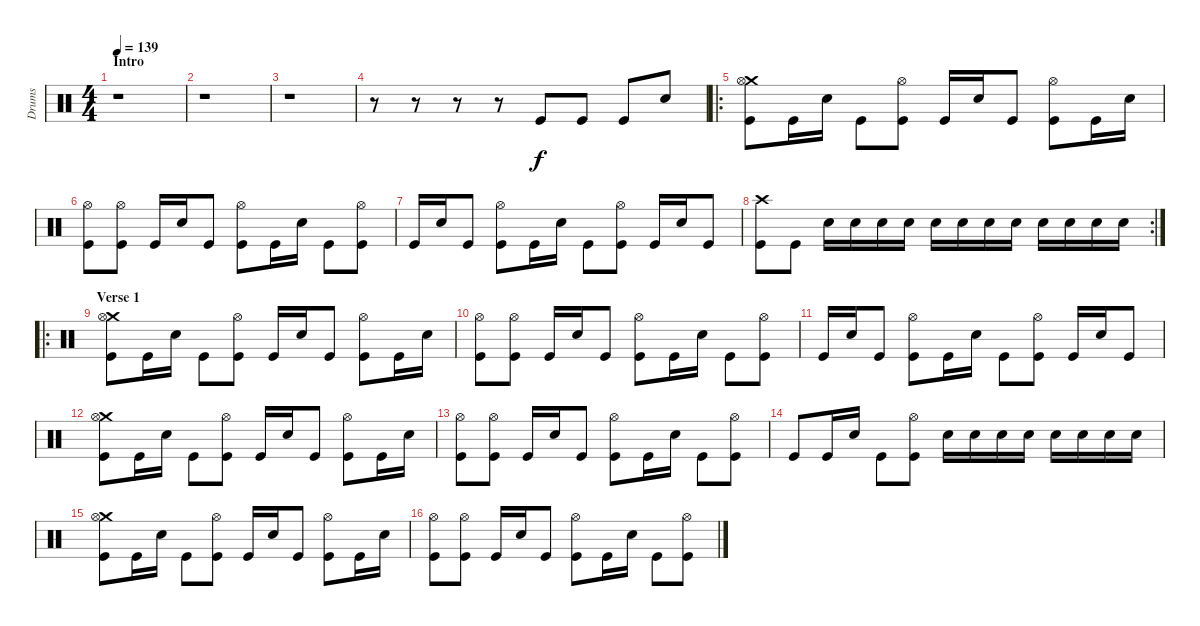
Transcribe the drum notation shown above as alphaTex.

\track ("Drums" "Drums") {instrument percussion}
\staff {score}
\articulation defaults
\ts (4 4)
\section ("" "Intro")
\tempo 139
\clef neutral
\ks c
r.1{dy f} |
r.1 |
r.1 |
r.8 r.8 r.8 r.8 "Kick (hit)".8 "Kick (hit)".8 "Kick (hit)".8 "Electric Snare (hit)".8 |
\ro
("Crash medium (hit)" "Hi-Hat (open)" "Kick (hit)").8 "Kick (hit)".16 "Electric Snare (hit)".16 "Kick (hit)".8 ("Hi-Hat (open)" "Kick (hit)").8 "Kick (hit)".16 "Electric Snare (hit)".16 "Kick (hit)".8 ("Hi-Hat (open)" "Kick (hit)").8 "Kick (hit)".16 "Electric Snare (hit)".16 |
("Hi-Hat (open)" "Kick (hit)").8 ("Hi-Hat (open)" "Kick (hit)").8 "Kick (hit)".16 "Electric Snare (hit)".16 "Kick (hit)".8 ("Hi-Hat (open)" "Kick (hit)").8 "Kick (hit)".16 "Electric Snare (hit)".16 "Kick (hit)".8 ("Hi-Hat (open)" "Kick (hit)").8 |
"Kick (hit)".16 "Electric Snare (hit)".16 "Kick (hit)".8 ("Hi-Hat (open)" "Kick (hit)").8 "Kick (hit)".16 "Electric Snare (hit)".16 "Kick (hit)".8 ("Hi-Hat (open)" "Kick (hit)").8 "Kick (hit)".16 "Electric Snare (hit)".16 "Kick (hit)".8 |
\rc 2
("Crash high (hit)" "Kick (hit)").8 "Kick (hit)".8 "Electric Snare (hit)".16 "Electric Snare (hit)".16 "Electric Snare (hit)".16 "Electric Snare (hit)".16 "Electric Snare (hit)".16 "Electric Snare (hit)".16 "Electric Snare (hit)".16 "Electric Snare (hit)".16 "Electric Snare (hit)".16 "Electric Snare (hit)".16 "Electric Snare (hit)".16 "Electric Snare (hit)".16 |
\ro
\section ("" "Verse 1")
("Crash medium (hit)" "Hi-Hat (open)" "Kick (hit)").8 "Kick (hit)".16 "Electric Snare (hit)".16 "Kick (hit)".8 ("Hi-Hat (open)" "Kick (hit)").8 "Kick (hit)".16 "Electric Snare (hit)".16 "Kick (hit)".8 ("Hi-Hat (open)" "Kick (hit)").8 "Kick (hit)".16 "Electric Snare (hit)".16 |
("Hi-Hat (open)" "Kick (hit)").8 ("Hi-Hat (open)" "Kick (hit)").8 "Kick (hit)".16 "Electric Snare (hit)".16 "Kick (hit)".8 ("Hi-Hat (open)" "Kick (hit)").8 "Kick (hit)".16 "Electric Snare (hit)".16 "Kick (hit)".8 ("Hi-Hat (open)" "Kick (hit)").8 |
"Kick (hit)".16 "Electric Snare (hit)".16 "Kick (hit)".8 ("Hi-Hat (open)" "Kick (hit)").8 "Kick (hit)".16 "Electric Snare (hit)".16 "Kick (hit)".8 ("Hi-Hat (open)" "Kick (hit)").8 "Kick (hit)".16 "Electric Snare (hit)".16 "Kick (hit)".8 |
("Crash medium (hit)" "Hi-Hat (open)" "Kick (hit)").8 "Kick (hit)".16 "Electric Snare (hit)".16 "Kick (hit)".8 ("Hi-Hat (open)" "Kick (hit)").8 "Kick (hit)".16 "Electric Snare (hit)".16 "Kick (hit)".8 ("Hi-Hat (open)" "Kick (hit)").8 "Kick (hit)".16 "Electric Snare (hit)".16 |
("Hi-Hat (open)" "Kick (hit)").8 ("Hi-Hat (open)" "Kick (hit)").8 "Kick (hit)".16 "Electric Snare (hit)".16 "Kick (hit)".8 ("Hi-Hat (open)" "Kick (hit)").8 "Kick (hit)".16 "Electric Snare (hit)".16 "Kick (hit)".8 ("Hi-Hat (open)" "Kick (hit)").8 |
"Kick (hit)".8 "Kick (hit)".16 "Electric Snare (hit)".16 "Kick (hit)".8 ("Hi-Hat (open)" "Kick (hit)").8 "Electric Snare (hit)".16 "Electric Snare (hit)".16 "Electric Snare (hit)".16 "Electric Snare (hit)".16 "Electric Snare (hit)".16 "Electric Snare (hit)".16 "Electric Snare (hit)".16 "Electric Snare (hit)".16 |
("Crash medium (hit)" "Hi-Hat (open)" "Kick (hit)").8 "Kick (hit)".16 "Electric Snare (hit)".16 "Kick (hit)".8 ("Hi-Hat (open)" "Kick (hit)").8 "Kick (hit)".16 "Electric Snare (hit)".16 "Kick (hit)".8 ("Hi-Hat (open)" "Kick (hit)").8 "Kick (hit)".16 "Electric Snare (hit)".16 |
("Hi-Hat (open)" "Kick (hit)").8 ("Hi-Hat (open)" "Kick (hit)").8 "Kick (hit)".16 "Electric Snare (hit)".16 "Kick (hit)".8 ("Hi-Hat (open)" "Kick (hit)").8 "Kick (hit)".16 "Electric Snare (hit)".16 "Kick (hit)".8 ("Hi-Hat (open)" "Kick (hit)").8
